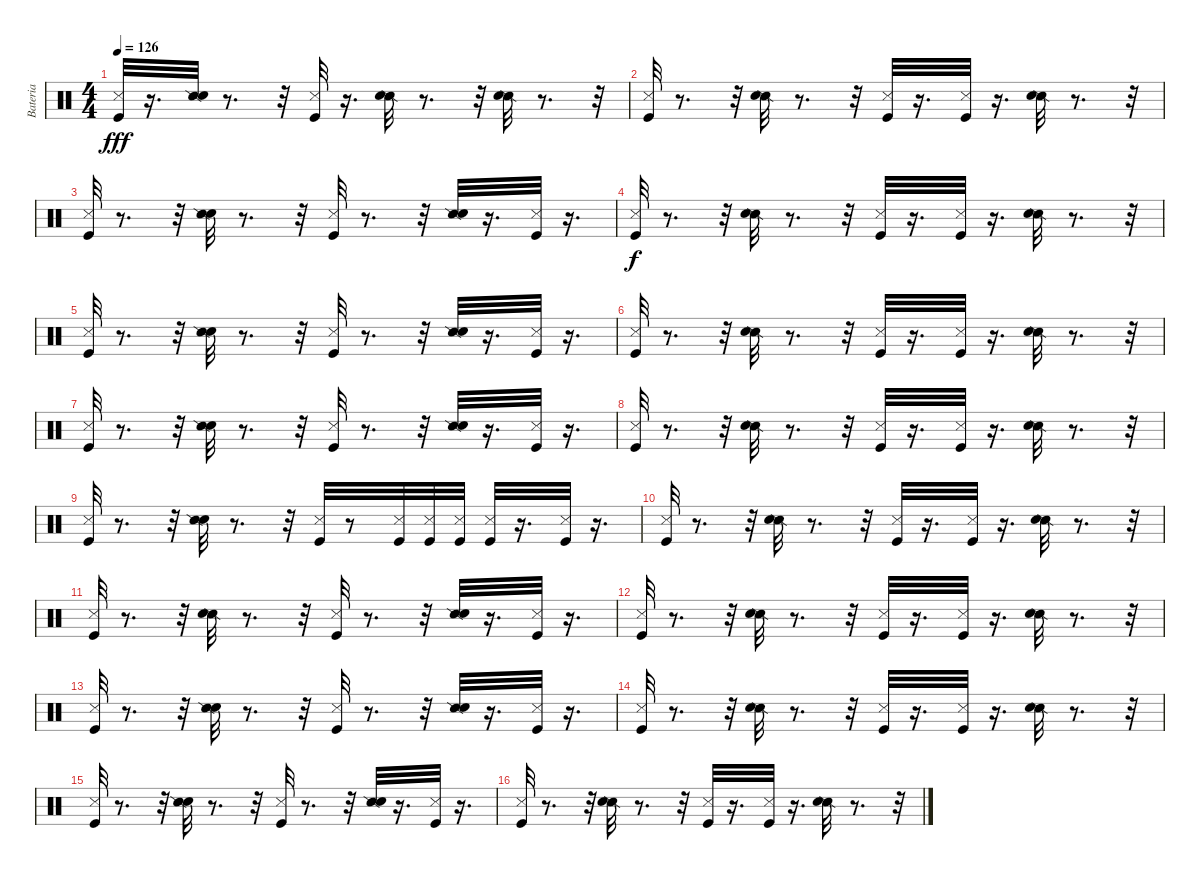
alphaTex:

\track ("Bateria" "Bateria") {instrument percussion}
\staff {score}
\articulation defaults
\ts (4 4)
\tempo 126
\clef neutral
\ks c
("Metronome (hit)" "Kick (hit)").32{dy fff} r.16{d} ("Snare (side stick) 2" "Metronome (bell)").32 r.8{d} r.32 ("Kick (hit)" "Metronome (hit)").32 r.16{d} ("Snare (side stick) 2" "Metronome (bell)").32 r.8{d} r.32 ("Snare (side stick) 2" "Metronome (bell)").32 r.8{d} r.32 |
("Metronome (hit)" "Kick (hit)").32 r.8{d} r.32 ("Snare (side stick) 2" "Metronome (bell)").32 r.8{d} r.32 ("Metronome (hit)" "Kick (hit)").32 r.16{d} ("Metronome (hit)" "Kick (hit)").32 r.16{d} ("Snare (side stick) 2" "Metronome (bell)").32 r.8{d} r.32 |
("Metronome (hit)" "Kick (hit)").32 r.8{d} r.32 ("Metronome (bell)" "Snare (side stick) 2").32 r.8{d} r.32 ("Metronome (hit)" "Kick (hit)").32 r.8{d} r.32 ("Snare (side stick) 2" "Metronome (bell)").32 r.16{d} ("Metronome (hit)" "Kick (hit)").32 r.16{d} |
("Metronome (hit)" "Kick (hit)").32{dy f} r.8{d} r.32 ("Snare (side stick) 2" "Metronome (bell)").32 r.8{d} r.32 ("Metronome (hit)" "Kick (hit)").32 r.16{d} ("Metronome (hit)" "Kick (hit)").32 r.16{d} ("Snare (side stick) 2" "Metronome (bell)").32 r.8{d} r.32 |
("Metronome (hit)" "Kick (hit)").32 r.8{d} r.32 ("Metronome (bell)" "Snare (side stick) 2").32 r.8{d} r.32 ("Metronome (hit)" "Kick (hit)").32 r.8{d} r.32 ("Snare (side stick) 2" "Metronome (bell)").32 r.16{d} ("Metronome (hit)" "Kick (hit)").32 r.16{d} |
("Metronome (hit)" "Kick (hit)").32 r.8{d} r.32 ("Snare (side stick) 2" "Metronome (bell)").32 r.8{d} r.32 ("Metronome (hit)" "Kick (hit)").32 r.16{d} ("Metronome (hit)" "Kick (hit)").32 r.16{d} ("Snare (side stick) 2" "Metronome (bell)").32 r.8{d} r.32 |
("Metronome (hit)" "Kick (hit)").32 r.8{d} r.32 ("Metronome (bell)" "Snare (side stick) 2").32 r.8{d} r.32 ("Metronome (hit)" "Kick (hit)").32 r.8{d} r.32 ("Snare (side stick) 2" "Metronome (bell)").32 r.16{d} ("Metronome (hit)" "Kick (hit)").32 r.16{d} |
("Metronome (hit)" "Kick (hit)").32 r.8{d} r.32 ("Snare (side stick) 2" "Metronome (bell)").32 r.8{d} r.32 ("Metronome (hit)" "Kick (hit)").32 r.16{d} ("Metronome (hit)" "Kick (hit)").32 r.16{d} ("Snare (side stick) 2" "Metronome (bell)").32 r.8{d} r.32 |
("Metronome (hit)" "Kick (hit)").32 r.8{d} r.32 ("Metronome (bell)" "Snare (side stick) 2").32 r.8{d} r.32 ("Metronome (hit)" "Kick (hit)").32 r.8 ("Kick (hit)" "Metronome (hit)").32 ("Metronome (hit)" "Kick (hit)").32 ("Metronome (hit)" "Kick (hit)").32 ("Kick (hit)" "Metronome (hit)").32 r.16{d} ("Kick (hit)" "Metronome (hit)").32 r.16{d} |
("Kick (hit)" "Metronome (hit)").32 r.8{d} r.32 ("Snare (side stick) 2" "Metronome (bell)").32 r.8{d} r.32 ("Metronome (hit)" "Kick (hit)").32 r.16{d} ("Kick (hit)" "Metronome (hit)").32 r.16{d} ("Snare (side stick) 2" "Metronome (bell)").32 r.8{d} r.32 |
("Metronome (hit)" "Kick (hit)").32 r.8{d} r.32 ("Snare (side stick) 2" "Metronome (bell)").32 r.8{d} r.32 ("Metronome (hit)" "Kick (hit)").32 r.8{d} r.32 ("Snare (side stick) 2" "Metronome (bell)").32 r.16{d} ("Kick (hit)" "Metronome (hit)").32 r.16{d} |
("Metronome (hit)" "Kick (hit)").32 r.8{d} r.32 ("Snare (side stick) 2" "Metronome (bell)").32 r.8{d} r.32 ("Metronome (hit)" "Kick (hit)").32 r.16{d} ("Metronome (hit)" "Kick (hit)").32 r.16{d} ("Snare (side stick) 2" "Metronome (bell)").32 r.8{d} r.32 |
("Metronome (hit)" "Kick (hit)").32 r.8{d} r.32 ("Metronome (bell)" "Snare (side stick) 2").32 r.8{d} r.32 ("Metronome (hit)" "Kick (hit)").32 r.8{d} r.32 ("Snare (side stick) 2" "Metronome (bell)").32 r.16{d} ("Metronome (hit)" "Kick (hit)").32 r.16{d} |
("Metronome (hit)" "Kick (hit)").32 r.8{d} r.32 ("Snare (side stick) 2" "Metronome (bell)").32 r.8{d} r.32 ("Metronome (hit)" "Kick (hit)").32 r.16{d} ("Metronome (hit)" "Kick (hit)").32 r.16{d} ("Snare (side stick) 2" "Metronome (bell)").32 r.8{d} r.32 |
("Metronome (hit)" "Kick (hit)").32 r.8{d} r.32 ("Metronome (bell)" "Snare (side stick) 2").32 r.8{d} r.32 ("Metronome (hit)" "Kick (hit)").32 r.8{d} r.32 ("Snare (side stick) 2" "Metronome (bell)").32 r.16{d} ("Metronome (hit)" "Kick (hit)").32 r.16{d} |
("Metronome (hit)" "Kick (hit)").32 r.8{d} r.32 ("Snare (side stick) 2" "Metronome (bell)").32 r.8{d} r.32 ("Metronome (hit)" "Kick (hit)").32 r.16{d} ("Metronome (hit)" "Kick (hit)").32 r.16{d} ("Snare (side stick) 2" "Metronome (bell)").32 r.8{d} r.32
